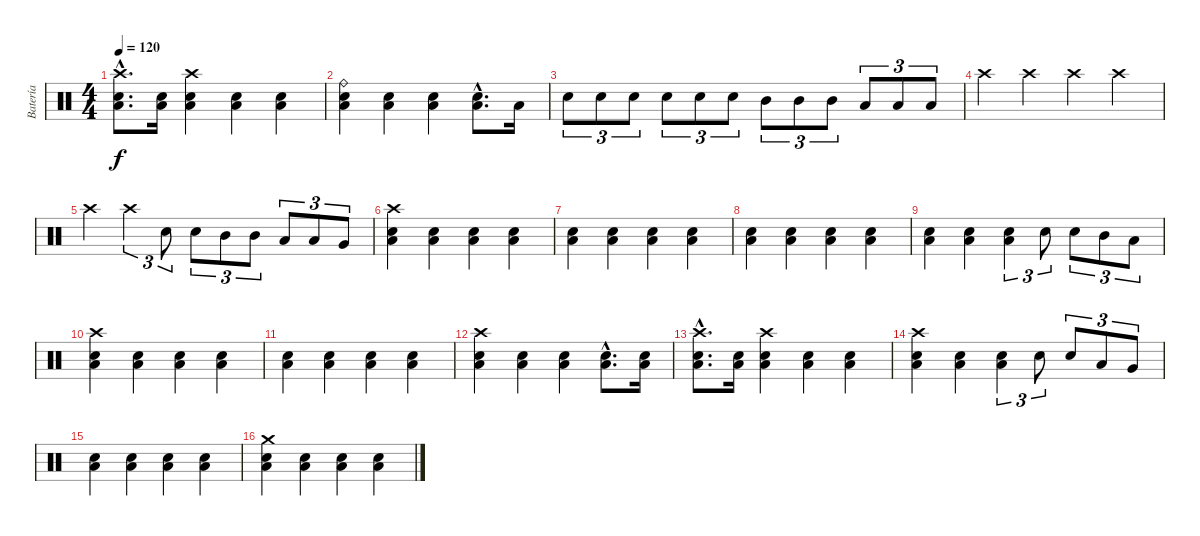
\track ("Batería" "Batería") {instrument percussion}
\staff {score}
\articulation defaults
\ts (4 4)
\tempo 120
\clef neutral
\ks c
("Crash high (hit)"{hac} "Low Tom (hit)"{hac} "Electric Snare (hit)"{hac}).8{d dy f} ("Low Tom (hit)" "Electric Snare (hit)").16 ("Crash high (hit)" "Low Tom (hit)" "Electric Snare (hit)").4 ("Low Tom (hit)" "Electric Snare (hit)").4 ("Low Tom (hit)" "Electric Snare (hit)").4 |
("Ride (bell)" "Low Tom (hit)" "Electric Snare (hit)").4 ("Low Tom (hit)" "Electric Snare (hit)").4 ("Low Tom (hit)" "Electric Snare (hit)").4 ("Low Tom (hit)"{hac} "Electric Snare (hit)"{hac}).8{d} "Low Tom (hit)".16 |
"Electric Snare (hit)".8{tu (3 2)} "Electric Snare (hit)".8{tu (3 2)} "Electric Snare (hit)".8{tu (3 2)} "Electric Snare (hit)".8{tu (3 2)} "Electric Snare (hit)".8{tu (3 2)} "Electric Snare (hit)".8{tu (3 2)} "Mid Tom (hit)".8{tu (3 2)} "Mid Tom (hit)".8{tu (3 2)} "Mid Tom (hit)".8{tu (3 2)} "Low Tom (hit)".8{tu (3 2)} "Low Tom (hit)".8{tu (3 2)} "Low Tom (hit)".8{tu (3 2)} |
"Crash high (hit)".4 "Crash high (hit)".4 "Crash high (hit)".4 "Crash high (hit)".4 |
"Crash high (hit)".4 "Crash high (hit)".4{tu (3 2)} "Electric Snare (hit)".8{tu (3 2)} "Electric Snare (hit)".8{tu (3 2)} "Mid Tom (hit)".8{tu (3 2)} "Mid Tom (hit)".8{tu (3 2)} "Low Tom (hit)".8{tu (3 2)} "Low Tom (hit)".8{tu (3 2)} "Very Low Tom (hit)".8{tu (3 2)} |
("Crash high (hit)" "Low Tom (hit)" "Electric Snare (hit)").4 ("Low Tom (hit)" "Electric Snare (hit)").4 ("Low Tom (hit)" "Electric Snare (hit)").4 ("Low Tom (hit)" "Electric Snare (hit)").4 |
("Low Tom (hit)" "Electric Snare (hit)").4 ("Low Tom (hit)" "Electric Snare (hit)").4 ("Low Tom (hit)" "Electric Snare (hit)").4 ("Low Tom (hit)" "Electric Snare (hit)").4 |
("Low Tom (hit)" "Electric Snare (hit)").4 ("Low Tom (hit)" "Electric Snare (hit)").4 ("Low Tom (hit)" "Electric Snare (hit)").4 ("Low Tom (hit)" "Electric Snare (hit)").4 |
("Low Tom (hit)" "Electric Snare (hit)").4 ("Low Tom (hit)" "Electric Snare (hit)").4 ("Low Tom (hit)" "Electric Snare (hit)").4{tu (3 2)} "Electric Snare (hit)".8{tu (3 2)} "Electric Snare (hit)".8{tu (3 2)} "Mid Tom (hit)".8{tu (3 2)} "Low Tom (hit)".8{tu (3 2)} |
("Crash high (hit)" "Low Tom (hit)" "Electric Snare (hit)").4 ("Low Tom (hit)" "Electric Snare (hit)").4 ("Low Tom (hit)" "Electric Snare (hit)").4 ("Low Tom (hit)" "Electric Snare (hit)").4 |
("Low Tom (hit)" "Electric Snare (hit)").4 ("Low Tom (hit)" "Electric Snare (hit)").4 ("Low Tom (hit)" "Electric Snare (hit)").4 ("Low Tom (hit)" "Electric Snare (hit)").4 |
("Crash high (hit)" "Low Tom (hit)" "Electric Snare (hit)").4 ("Low Tom (hit)" "Electric Snare (hit)").4 ("Low Tom (hit)" "Electric Snare (hit)").4 ("Low Tom (hit)"{hac} "Electric Snare (hit)"{hac}).8{d} ("Low Tom (hit)" "Electric Snare (hit)").16 |
("Crash high (hit)"{hac} "Low Tom (hit)"{hac} "Electric Snare (hit)"{hac}).8{d} ("Low Tom (hit)" "Electric Snare (hit)").16 ("Crash high (hit)" "Low Tom (hit)" "Electric Snare (hit)").4 ("Low Tom (hit)" "Electric Snare (hit)").4 ("Low Tom (hit)" "Electric Snare (hit)").4 |
("Crash high (hit)" "Low Tom (hit)" "Electric Snare (hit)").4 ("Low Tom (hit)" "Electric Snare (hit)").4 ("Low Tom (hit)" "Electric Snare (hit)").4{tu (3 2)} "Electric Snare (hit)".8{tu (3 2)} "Electric Snare (hit)".8{tu (3 2)} "Low Tom (hit)".8{tu (3 2)} "Very Low Tom (hit)".8{tu (3 2)} |
("Low Tom (hit)" "Electric Snare (hit)").4 ("Low Tom (hit)" "Electric Snare (hit)").4 ("Low Tom (hit)" "Electric Snare (hit)").4 ("Low Tom (hit)" "Electric Snare (hit)").4 |
("Crash medium (hit)" "Low Tom (hit)" "Electric Snare (hit)").4 ("Low Tom (hit)" "Electric Snare (hit)").4 ("Low Tom (hit)" "Electric Snare (hit)").4 ("Low Tom (hit)" "Electric Snare (hit)").4
